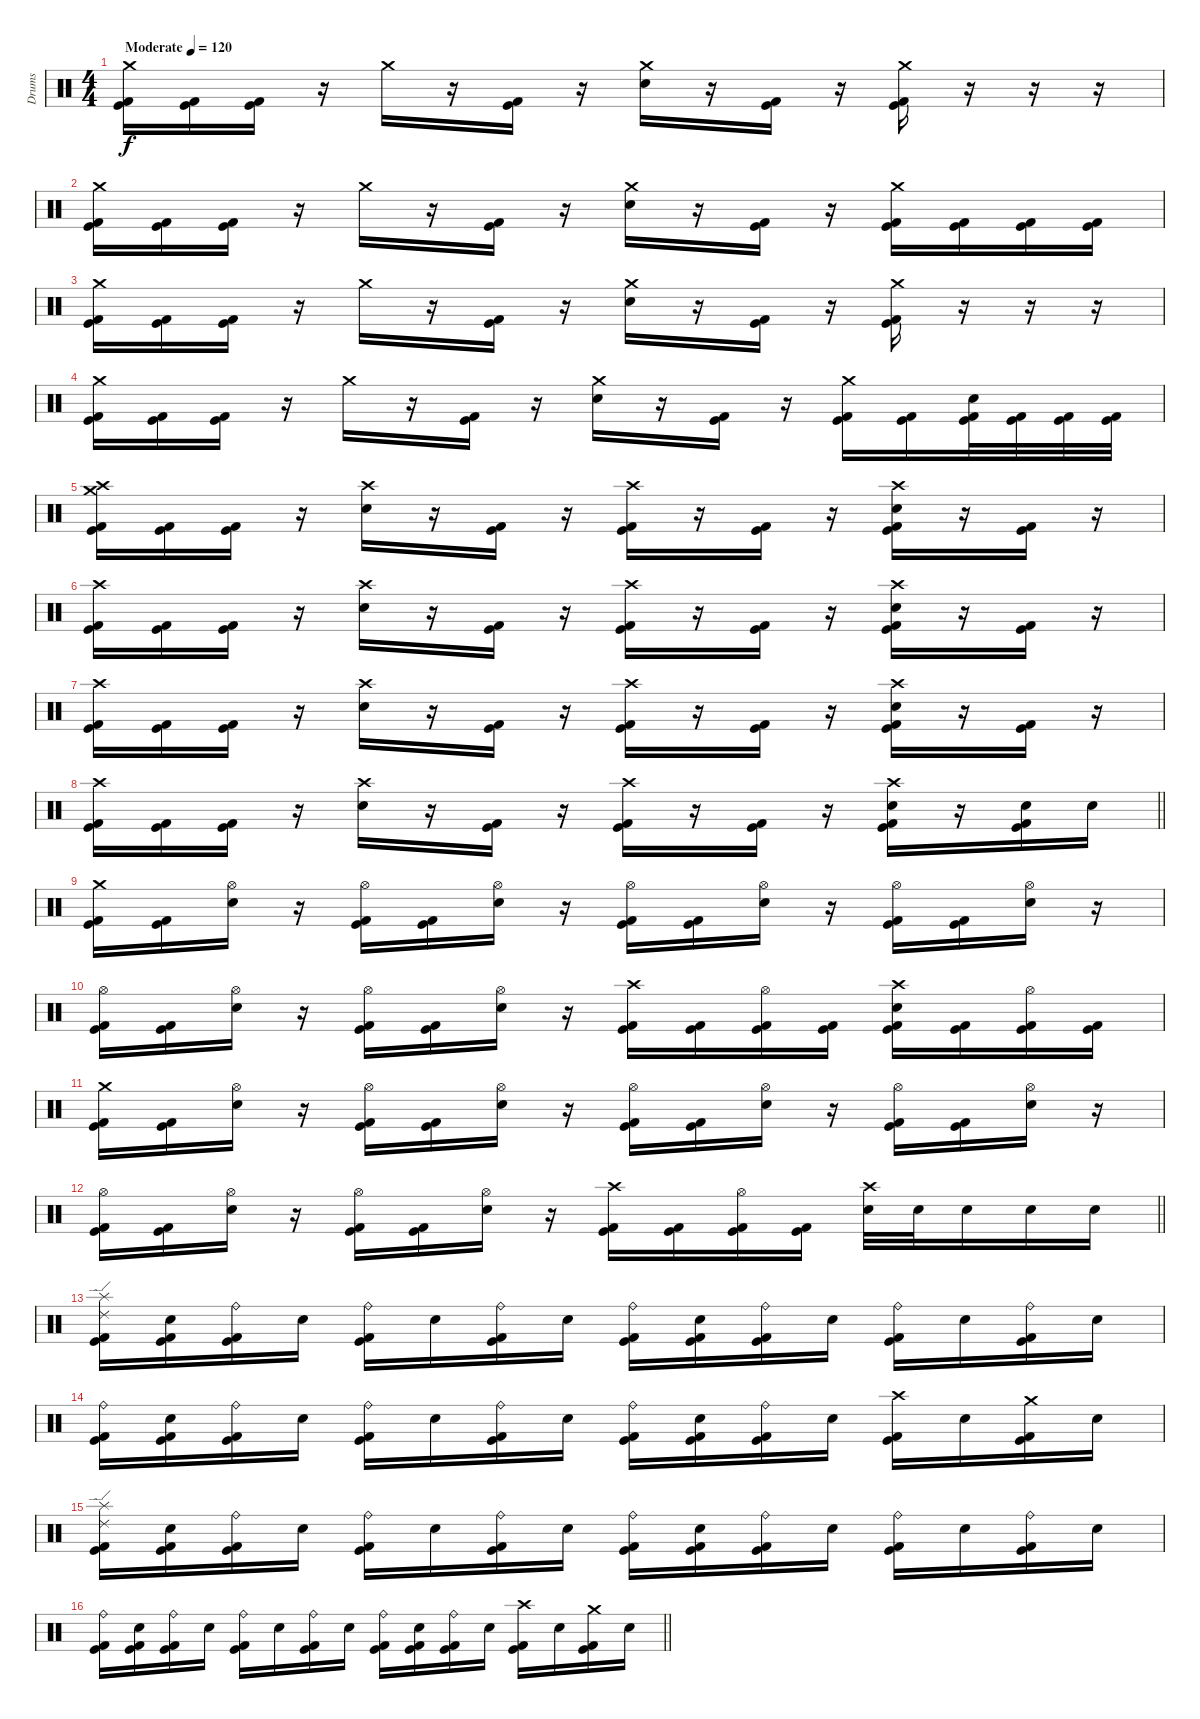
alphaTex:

\track ("Drums" "Drums") {instrument percussion}
\staff {score}
\articulation defaults
\ts (4 4)
\tempo (120 "Moderate")
\clef neutral
\ks c
("Crash medium (hit)" "Kick (hit)" "Kick (hit) 2").16{dy f} ("Kick (hit)" "Kick (hit) 2").16 ("Kick (hit)" "Kick (hit) 2").16 r.16 "Crash medium (hit)".16 r.16 ("Kick (hit)" "Kick (hit) 2").16 r.16 ("Crash medium (hit)" "Electric Snare (hit)").16 r.16 ("Kick (hit)" "Kick (hit) 2").16 r.16 ("Crash medium (hit)" "Kick (hit)" "Kick (hit) 2").16 r.16 r.16 r.16 |
("Crash medium (hit)" "Kick (hit)" "Kick (hit) 2").16 ("Kick (hit)" "Kick (hit) 2").16 ("Kick (hit)" "Kick (hit) 2").16 r.16 "Crash medium (hit)".16 r.16 ("Kick (hit)" "Kick (hit) 2").16 r.16 ("Crash medium (hit)" "Electric Snare (hit)").16 r.16 ("Kick (hit)" "Kick (hit) 2").16 r.16 ("Crash medium (hit)" "Kick (hit)" "Kick (hit) 2").16 ("Kick (hit)" "Kick (hit) 2").16 ("Kick (hit)" "Kick (hit) 2").16 ("Kick (hit)" "Kick (hit) 2").16 |
("Crash medium (hit)" "Kick (hit)" "Kick (hit) 2").16 ("Kick (hit)" "Kick (hit) 2").16 ("Kick (hit)" "Kick (hit) 2").16 r.16 "Crash medium (hit)".16 r.16 ("Kick (hit)" "Kick (hit) 2").16 r.16 ("Crash medium (hit)" "Electric Snare (hit)").16 r.16 ("Kick (hit)" "Kick (hit) 2").16 r.16 ("Crash medium (hit)" "Kick (hit)" "Kick (hit) 2").16 r.16 r.16 r.16 |
("Crash medium (hit)" "Kick (hit)" "Kick (hit) 2").16 ("Kick (hit)" "Kick (hit) 2").16 ("Kick (hit)" "Kick (hit) 2").16 r.16 "Crash medium (hit)".16 r.16 ("Kick (hit)" "Kick (hit) 2").16 r.16 ("Crash medium (hit)" "Electric Snare (hit)").16 r.16 ("Kick (hit)" "Kick (hit) 2").16 r.16 ("Crash medium (hit)" "Kick (hit)" "Kick (hit) 2").16 ("Kick (hit)" "Kick (hit) 2").16 ("Electric Snare (hit)" "Kick (hit)" "Kick (hit) 2").32 ("Kick (hit)" "Kick (hit) 2").32 ("Kick (hit)" "Kick (hit) 2").32 ("Kick (hit)" "Kick (hit) 2").32 |
("Crash medium (hit)" "Crash high (hit)" "Kick (hit)" "Kick (hit) 2").16 ("Kick (hit)" "Kick (hit) 2").16 ("Kick (hit)" "Kick (hit) 2").16 r.16 ("Crash high (hit)" "Electric Snare (hit)").16 r.16 ("Kick (hit)" "Kick (hit) 2").16 r.16 ("Crash high (hit)" "Kick (hit)" "Kick (hit) 2").16 r.16 ("Kick (hit)" "Kick (hit) 2").16 r.16 ("Crash high (hit)" "Electric Snare (hit)" "Kick (hit)" "Kick (hit) 2").16 r.16 ("Kick (hit)" "Kick (hit) 2").16 r.16 |
("Crash high (hit)" "Kick (hit)" "Kick (hit) 2").16 ("Kick (hit)" "Kick (hit) 2").16 ("Kick (hit)" "Kick (hit) 2").16 r.16 ("Crash high (hit)" "Electric Snare (hit)").16 r.16 ("Kick (hit)" "Kick (hit) 2").16 r.16 ("Crash high (hit)" "Kick (hit)" "Kick (hit) 2").16 r.16 ("Kick (hit)" "Kick (hit) 2").16 r.16 ("Crash high (hit)" "Electric Snare (hit)" "Kick (hit)" "Kick (hit) 2").16 r.16 ("Kick (hit)" "Kick (hit) 2").16 r.16 |
("Crash high (hit)" "Kick (hit)" "Kick (hit) 2").16 ("Kick (hit)" "Kick (hit) 2").16 ("Kick (hit)" "Kick (hit) 2").16 r.16 ("Crash high (hit)" "Electric Snare (hit)").16 r.16 ("Kick (hit)" "Kick (hit) 2").16 r.16 ("Crash high (hit)" "Kick (hit)" "Kick (hit) 2").16 r.16 ("Kick (hit)" "Kick (hit) 2").16 r.16 ("Crash high (hit)" "Electric Snare (hit)" "Kick (hit)" "Kick (hit) 2").16 r.16 ("Kick (hit)" "Kick (hit) 2").16 r.16 |
\barLineRight lightlight
("Crash high (hit)" "Kick (hit)" "Kick (hit) 2").16 ("Kick (hit)" "Kick (hit) 2").16 ("Kick (hit)" "Kick (hit) 2").16 r.16 ("Crash high (hit)" "Electric Snare (hit)").16 r.16 ("Kick (hit)" "Kick (hit) 2").16 r.16 ("Crash high (hit)" "Kick (hit)" "Kick (hit) 2").16 r.16 ("Kick (hit)" "Kick (hit) 2").16 r.16 ("Crash high (hit)" "Electric Snare (hit)" "Kick (hit)" "Kick (hit) 2").16 r.16 ("Electric Snare (hit)" "Kick (hit)" "Kick (hit) 2").16 "Electric Snare (hit)".16 |
("Crash medium (hit)" "Kick (hit)" "Kick (hit) 2").16 ("Kick (hit)" "Kick (hit) 2").16 ("Hi-Hat (open)" "Electric Snare (hit)").16 r.16 ("Hi-Hat (open)" "Kick (hit)" "Kick (hit) 2").16 ("Kick (hit)" "Kick (hit) 2").16 ("Hi-Hat (open)" "Electric Snare (hit)").16 r.16 ("Hi-Hat (open)" "Kick (hit)" "Kick (hit) 2").16 ("Kick (hit)" "Kick (hit) 2").16 ("Hi-Hat (open)" "Electric Snare (hit)").16 r.16 ("Hi-Hat (open)" "Kick (hit)" "Kick (hit) 2").16 ("Kick (hit)" "Kick (hit) 2").16 ("Hi-Hat (open)" "Electric Snare (hit)").16 r.16 |
("Hi-Hat (open)" "Kick (hit)" "Kick (hit) 2").16 ("Kick (hit)" "Kick (hit) 2").16 ("Hi-Hat (open)" "Electric Snare (hit)").16 r.16 ("Hi-Hat (open)" "Kick (hit)" "Kick (hit) 2").16 ("Kick (hit)" "Kick (hit) 2").16 ("Hi-Hat (open)" "Electric Snare (hit)").16 r.16 ("Crash high (hit)" "Kick (hit)" "Kick (hit) 2").16 ("Kick (hit)" "Kick (hit) 2").16 ("Hi-Hat (open)" "Kick (hit)" "Kick (hit) 2").16 ("Kick (hit)" "Kick (hit) 2").16 ("Crash high (hit)" "Electric Snare (hit)" "Kick (hit)" "Kick (hit) 2").16 ("Kick (hit)" "Kick (hit) 2").16 ("Hi-Hat (open)" "Kick (hit)" "Kick (hit) 2").16 ("Kick (hit)" "Kick (hit) 2").16 |
("Crash medium (hit)" "Kick (hit)" "Kick (hit) 2").16 ("Kick (hit)" "Kick (hit) 2").16 ("Hi-Hat (open)" "Electric Snare (hit)").16 r.16 ("Hi-Hat (open)" "Kick (hit)" "Kick (hit) 2").16 ("Kick (hit)" "Kick (hit) 2").16 ("Hi-Hat (open)" "Electric Snare (hit)").16 r.16 ("Hi-Hat (open)" "Kick (hit)" "Kick (hit) 2").16 ("Kick (hit)" "Kick (hit) 2").16 ("Hi-Hat (open)" "Electric Snare (hit)").16 r.16 ("Hi-Hat (open)" "Kick (hit)" "Kick (hit) 2").16 ("Kick (hit)" "Kick (hit) 2").16 ("Hi-Hat (open)" "Electric Snare (hit)").16 r.16 |
\barLineRight lightlight
("Hi-Hat (open)" "Kick (hit)" "Kick (hit) 2").16 ("Kick (hit)" "Kick (hit) 2").16 ("Hi-Hat (open)" "Electric Snare (hit)").16 r.16 ("Hi-Hat (open)" "Kick (hit)" "Kick (hit) 2").16 ("Kick (hit)" "Kick (hit) 2").16 ("Hi-Hat (open)" "Electric Snare (hit)").16 r.16 ("Crash high (hit)" "Kick (hit)" "Kick (hit) 2").16 ("Kick (hit)" "Kick (hit) 2").16 ("Hi-Hat (open)" "Kick (hit)" "Kick (hit) 2").16 ("Kick (hit)" "Kick (hit) 2").16 ("Crash high (hit)" "Electric Snare (hit)").32 "Electric Snare (hit)".32 "Electric Snare (hit)".16 "Electric Snare (hit)".16 "Electric Snare (hit)".16 |
("Ride (edge) 2" "Splash (hit)" "Kick (hit)" "Kick (hit) 2").16 ("Electric Snare (hit)" "Kick (hit)" "Kick (hit) 2").16 ("Ride (bell)" "Kick (hit)" "Kick (hit) 2").16 "Electric Snare (hit)".16 ("Ride (bell)" "Kick (hit)" "Kick (hit) 2").16 "Electric Snare (hit)".16 ("Ride (bell)" "Kick (hit)" "Kick (hit) 2").16 "Electric Snare (hit)".16 ("Ride (bell)" "Kick (hit)" "Kick (hit) 2").16 ("Electric Snare (hit)" "Kick (hit)" "Kick (hit) 2").16 ("Ride (bell)" "Kick (hit)" "Kick (hit) 2").16 "Electric Snare (hit)".16 ("Ride (bell)" "Kick (hit)" "Kick (hit) 2").16 "Electric Snare (hit)".16 ("Ride (bell)" "Kick (hit)" "Kick (hit) 2").16 "Electric Snare (hit)".16 |
("Ride (bell)" "Kick (hit)" "Kick (hit) 2").16 ("Electric Snare (hit)" "Kick (hit)" "Kick (hit) 2").16 ("Ride (bell)" "Kick (hit)" "Kick (hit) 2").16 "Electric Snare (hit)".16 ("Ride (bell)" "Kick (hit)" "Kick (hit) 2").16 "Electric Snare (hit)".16 ("Ride (bell)" "Kick (hit)" "Kick (hit) 2").16 "Electric Snare (hit)".16 ("Ride (bell)" "Kick (hit)" "Kick (hit) 2").16 ("Electric Snare (hit)" "Kick (hit)" "Kick (hit) 2").16 ("Ride (bell)" "Kick (hit)" "Kick (hit) 2").16 "Electric Snare (hit)".16 ("Crash high (hit)" "Kick (hit)" "Kick (hit) 2").16 "Electric Snare (hit)".16 ("Crash medium (hit)" "Kick (hit)" "Kick (hit) 2").16 "Electric Snare (hit)".16 |
("Ride (edge) 2" "Splash (hit)" "Kick (hit)" "Kick (hit) 2").16 ("Electric Snare (hit)" "Kick (hit)" "Kick (hit) 2").16 ("Ride (bell)" "Kick (hit)" "Kick (hit) 2").16 "Electric Snare (hit)".16 ("Ride (bell)" "Kick (hit)" "Kick (hit) 2").16 "Electric Snare (hit)".16 ("Ride (bell)" "Kick (hit)" "Kick (hit) 2").16 "Electric Snare (hit)".16 ("Ride (bell)" "Kick (hit)" "Kick (hit) 2").16 ("Electric Snare (hit)" "Kick (hit)" "Kick (hit) 2").16 ("Ride (bell)" "Kick (hit)" "Kick (hit) 2").16 "Electric Snare (hit)".16 ("Ride (bell)" "Kick (hit)" "Kick (hit) 2").16 "Electric Snare (hit)".16 ("Ride (bell)" "Kick (hit)" "Kick (hit) 2").16 "Electric Snare (hit)".16 |
\barLineRight lightlight
("Ride (bell)" "Kick (hit)" "Kick (hit) 2").16 ("Electric Snare (hit)" "Kick (hit)" "Kick (hit) 2").16 ("Ride (bell)" "Kick (hit)" "Kick (hit) 2").16 "Electric Snare (hit)".16 ("Ride (bell)" "Kick (hit)" "Kick (hit) 2").16 "Electric Snare (hit)".16 ("Ride (bell)" "Kick (hit)" "Kick (hit) 2").16 "Electric Snare (hit)".16 ("Ride (bell)" "Kick (hit)" "Kick (hit) 2").16 ("Electric Snare (hit)" "Kick (hit)" "Kick (hit) 2").16 ("Ride (bell)" "Kick (hit)" "Kick (hit) 2").16 "Electric Snare (hit)".16 ("Crash high (hit)" "Kick (hit)" "Kick (hit) 2").16 "Electric Snare (hit)".16 ("Crash medium (hit)" "Kick (hit)" "Kick (hit) 2").16 "Electric Snare (hit)".16
